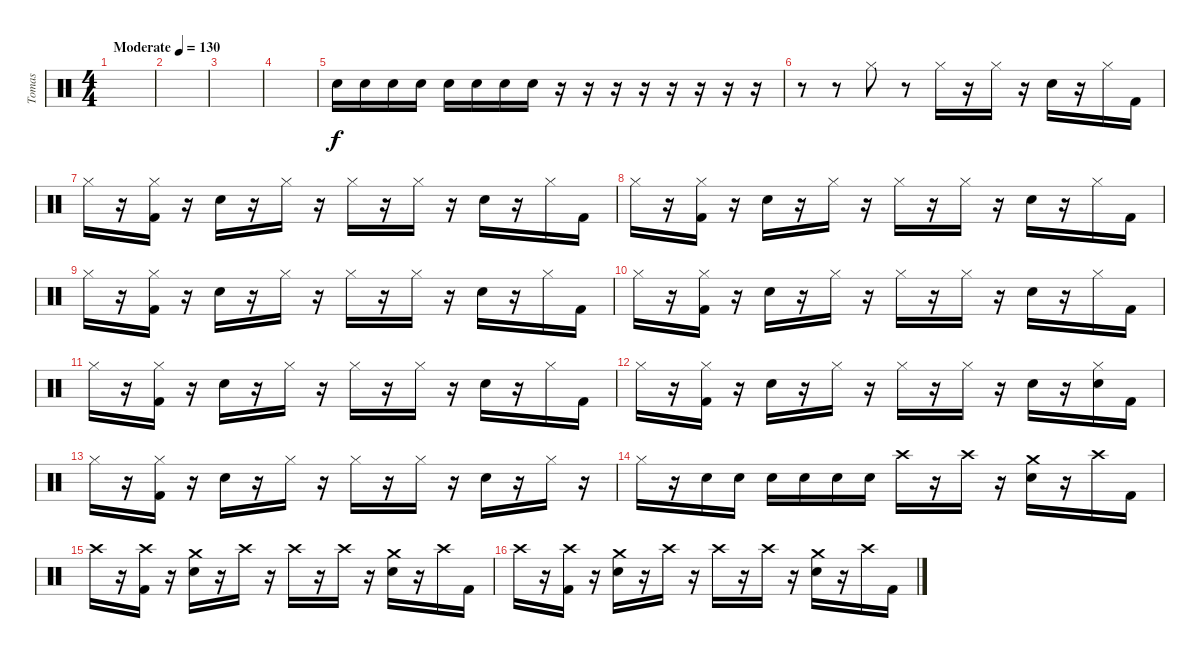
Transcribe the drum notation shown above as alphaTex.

\track ("Tomas" "Tomas") {instrument percussion}
\staff {score}
\articulation defaults
\ts (4 4)
\tempo (130 "Moderate")
\clef neutral
\ks c
|
|
|
|
"Snare (hit) 2".16 "Snare (hit) 2".16 "Snare (hit) 2".16 "Snare (hit) 2".16 "Snare (hit) 2".16 "Snare (hit) 2".16 "Snare (hit) 2".16 "Snare (hit) 2".16 r.16 r.16 r.16 r.16 r.16 r.16 r.16 r.16 |
r.8 r.8 "Hi-Hat (closed)".8 r.8 "Hi-Hat (closed)".16 r.16 "Hi-Hat (closed)".16 r.16 "Electric Snare (hit)".16 r.16 "Hi-Hat (closed)".16 "Kick (hit) 2".16 |
"Hi-Hat (closed)".16 r.16 ("Hi-Hat (closed)" "Kick (hit) 2").16 r.16 "Electric Snare (hit)".16 r.16 "Hi-Hat (closed)".16 r.16 "Hi-Hat (closed)".16 r.16 "Hi-Hat (closed)".16 r.16 "Electric Snare (hit)".16 r.16 "Hi-Hat (closed)".16 "Kick (hit) 2".16 |
"Hi-Hat (closed)".16 r.16 ("Hi-Hat (closed)" "Kick (hit) 2").16 r.16 "Electric Snare (hit)".16 r.16 "Hi-Hat (closed)".16 r.16 "Hi-Hat (closed)".16 r.16 "Hi-Hat (closed)".16 r.16 "Electric Snare (hit)".16 r.16 "Hi-Hat (closed)".16 "Kick (hit) 2".16 |
"Hi-Hat (closed)".16 r.16 ("Hi-Hat (closed)" "Kick (hit) 2").16 r.16 "Electric Snare (hit)".16 r.16 "Hi-Hat (closed)".16 r.16 "Hi-Hat (closed)".16 r.16 "Hi-Hat (closed)".16 r.16 "Electric Snare (hit)".16 r.16 "Hi-Hat (closed)".16 "Kick (hit) 2".16 |
"Hi-Hat (closed)".16 r.16 ("Hi-Hat (closed)" "Kick (hit) 2").16 r.16 "Electric Snare (hit)".16 r.16 "Hi-Hat (closed)".16 r.16 "Hi-Hat (closed)".16 r.16 "Hi-Hat (closed)".16 r.16 "Electric Snare (hit)".16 r.16 "Hi-Hat (closed)".16 "Kick (hit) 2".16 |
"Hi-Hat (closed)".16 r.16 ("Hi-Hat (closed)" "Kick (hit) 2").16 r.16 "Electric Snare (hit)".16 r.16 "Hi-Hat (closed)".16 r.16 "Hi-Hat (closed)".16 r.16 "Hi-Hat (closed)".16 r.16 "Electric Snare (hit)".16 r.16 "Hi-Hat (closed)".16 "Kick (hit) 2".16 |
"Hi-Hat (closed)".16 r.16 ("Hi-Hat (closed)" "Kick (hit) 2").16 r.16 "Electric Snare (hit)".16 r.16 "Hi-Hat (closed)".16 r.16 "Hi-Hat (closed)".16 r.16 "Hi-Hat (closed)".16 r.16 "Electric Snare (hit)".16 r.16 ("Hi-Hat (closed)" "Electric Snare (hit)").16 "Kick (hit) 2".16 |
"Hi-Hat (closed)".16 r.16 ("Hi-Hat (closed)" "Kick (hit) 2").16 r.16 "Electric Snare (hit)".16 r.16 "Hi-Hat (closed)".16 r.16 "Hi-Hat (closed)".16 r.16 "Hi-Hat (closed)".16 r.16 "Electric Snare (hit)".16 r.16 "Hi-Hat (closed)".16 r.16 |
"Hi-Hat (closed)".16 r.16 "Snare (hit) 2".16 "Snare (hit) 2".16 "Snare (hit) 2".16 "Snare (hit) 2".16 "Snare (hit) 2".16 "Snare (hit) 2".16 "Crash high (hit)".16 r.16 "Crash high (hit)".16 r.16 ("Electric Snare (hit)" "Crash medium (hit)").16 r.16 "Crash high (hit)".16 "Kick (hit) 2".16 |
"Crash high (hit)".16 r.16 ("Kick (hit) 2" "Crash high (hit)").16 r.16 ("Electric Snare (hit)" "Crash medium (hit)").16 r.16 "Crash high (hit)".16 r.16 "Crash high (hit)".16 r.16 "Crash high (hit)".16 r.16 ("Electric Snare (hit)" "Crash medium (hit)").16 r.16 "Crash high (hit)".16 "Kick (hit) 2".16 |
"Crash high (hit)".16 r.16 ("Kick (hit) 2" "Crash high (hit)").16 r.16 ("Electric Snare (hit)" "Crash medium (hit)").16 r.16 "Crash high (hit)".16 r.16 "Crash high (hit)".16 r.16 "Crash high (hit)".16 r.16 ("Electric Snare (hit)" "Crash medium (hit)").16 r.16 "Crash high (hit)".16 "Kick (hit) 2".16
